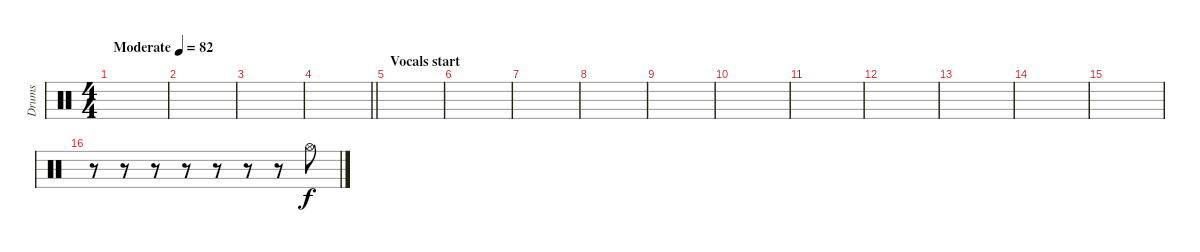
\track ("Drums" "Drums") {instrument percussion}
\staff {score}
\articulation defaults
\ts (4 4)
\tempo (82 "Moderate")
\clef neutral
\ks c
|
|
|
\barLineRight lightlight
|
\section ("" "Vocals start")
|
|
|
|
|
|
|
|
|
|
|
r.8 r.8 r.8 r.8 r.8 r.8 r.8 "Hi-Hat (open)".8
